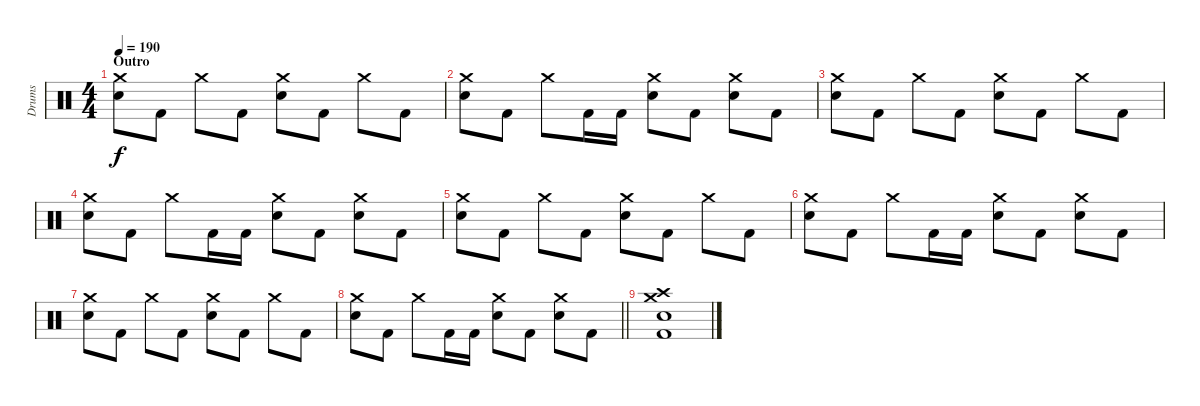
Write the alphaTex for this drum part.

\track ("Drums" "Drums") {instrument percussion}
\staff {score}
\articulation defaults
\ts (4 4)
\section ("" "Outro")
\tempo 190
\clef neutral
\ks c
("Crash medium (hit)" "Snare (hit) 2").8{dy f} "Kick (hit) 2".8 "Crash medium (hit)".8 "Kick (hit) 2".8 ("Crash medium (hit)" "Snare (hit) 2").8 "Kick (hit) 2".8 "Crash medium (hit)".8 "Kick (hit) 2".8 |
("Crash medium (hit)" "Snare (hit) 2").8 "Kick (hit) 2".8 "Crash medium (hit)".8 "Kick (hit) 2".16 "Kick (hit) 2".16 ("Crash medium (hit)" "Snare (hit) 2").8 "Kick (hit) 2".8 ("Crash medium (hit)" "Snare (hit) 2").8 "Kick (hit) 2".8 |
("Crash medium (hit)" "Snare (hit) 2").8 "Kick (hit) 2".8 "Crash medium (hit)".8 "Kick (hit) 2".8 ("Crash medium (hit)" "Snare (hit) 2").8 "Kick (hit) 2".8 "Crash medium (hit)".8 "Kick (hit) 2".8 |
("Crash medium (hit)" "Snare (hit) 2").8 "Kick (hit) 2".8 "Crash medium (hit)".8 "Kick (hit) 2".16 "Kick (hit) 2".16 ("Crash medium (hit)" "Snare (hit) 2").8 "Kick (hit) 2".8 ("Crash medium (hit)" "Snare (hit) 2").8 "Kick (hit) 2".8 |
("Crash medium (hit)" "Snare (hit) 2").8 "Kick (hit) 2".8 "Crash medium (hit)".8 "Kick (hit) 2".8 ("Crash medium (hit)" "Snare (hit) 2").8 "Kick (hit) 2".8 "Crash medium (hit)".8 "Kick (hit) 2".8 |
("Crash medium (hit)" "Snare (hit) 2").8 "Kick (hit) 2".8 "Crash medium (hit)".8 "Kick (hit) 2".16 "Kick (hit) 2".16 ("Crash medium (hit)" "Snare (hit) 2").8 "Kick (hit) 2".8 ("Crash medium (hit)" "Snare (hit) 2").8 "Kick (hit) 2".8 |
("Crash medium (hit)" "Snare (hit) 2").8 "Kick (hit) 2".8 "Crash medium (hit)".8 "Kick (hit) 2".8 ("Crash medium (hit)" "Snare (hit) 2").8 "Kick (hit) 2".8 "Crash medium (hit)".8 "Kick (hit) 2".8 |
\barLineRight lightlight
("Crash medium (hit)" "Snare (hit) 2").8 "Kick (hit) 2".8 "Crash medium (hit)".8 "Kick (hit) 2".16 "Kick (hit) 2".16 ("Crash medium (hit)" "Snare (hit) 2").8 "Kick (hit) 2".8 ("Crash medium (hit)" "Snare (hit) 2").8 "Kick (hit) 2".8 |
\section ("" "")
("Crash high (hit)" "Crash medium (hit)" "Snare (hit) 2" "Kick (hit) 2").1
